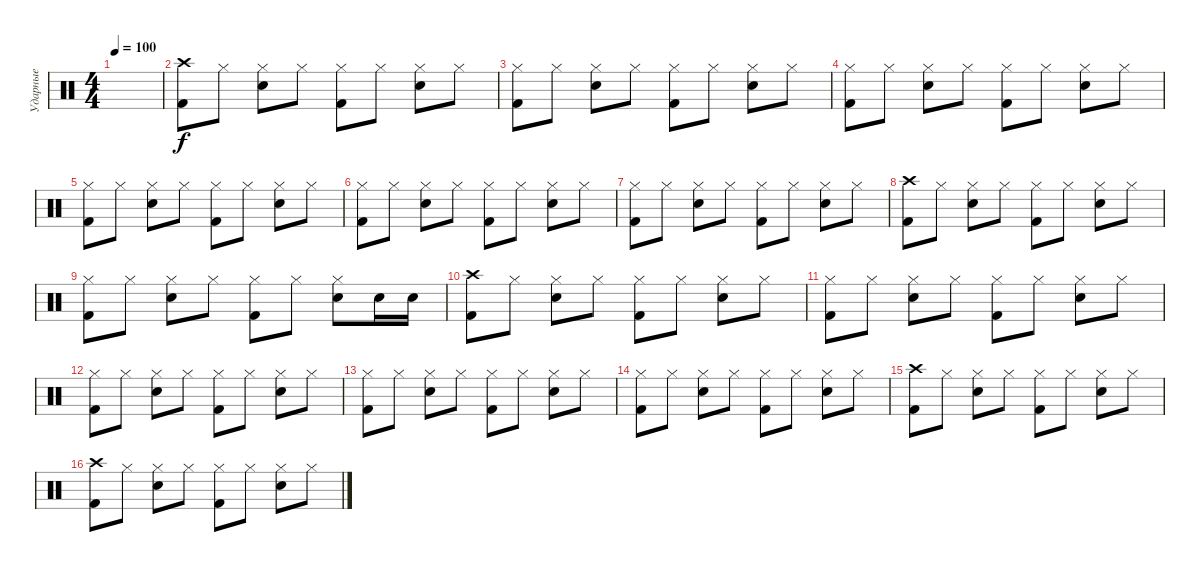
\track ("Ударные" "Ударные") {instrument percussion}
\staff {score}
\articulation defaults
\ts (4 4)
\tempo 100
\clef neutral
\ks c
|
("Kick (hit) 2" "Crash high (hit)").8 "Hi-Hat (closed)".8 ("Electric Snare (hit)" "Hi-Hat (closed)").8 "Hi-Hat (closed)".8 ("Hi-Hat (closed)" "Kick (hit) 2").8 "Hi-Hat (closed)".8 ("Electric Snare (hit)" "Hi-Hat (closed)").8 "Hi-Hat (closed)".8 |
("Kick (hit) 2" "Hi-Hat (closed)").8 "Hi-Hat (closed)".8 ("Electric Snare (hit)" "Hi-Hat (closed)").8 "Hi-Hat (closed)".8 ("Hi-Hat (closed)" "Kick (hit) 2").8 "Hi-Hat (closed)".8 ("Electric Snare (hit)" "Hi-Hat (closed)").8 "Hi-Hat (closed)".8 |
("Kick (hit) 2" "Hi-Hat (closed)").8 "Hi-Hat (closed)".8 ("Electric Snare (hit)" "Hi-Hat (closed)").8 "Hi-Hat (closed)".8 ("Hi-Hat (closed)" "Kick (hit) 2").8 "Hi-Hat (closed)".8 ("Electric Snare (hit)" "Hi-Hat (closed)").8 "Hi-Hat (closed)".8 |
("Kick (hit) 2" "Hi-Hat (closed)").8 "Hi-Hat (closed)".8 ("Electric Snare (hit)" "Hi-Hat (closed)").8 "Hi-Hat (closed)".8 ("Hi-Hat (closed)" "Kick (hit) 2").8 "Hi-Hat (closed)".8 ("Electric Snare (hit)" "Hi-Hat (closed)").8 "Hi-Hat (closed)".8 |
("Kick (hit) 2" "Hi-Hat (closed)").8 "Hi-Hat (closed)".8 ("Electric Snare (hit)" "Hi-Hat (closed)").8 "Hi-Hat (closed)".8 ("Hi-Hat (closed)" "Kick (hit) 2").8 "Hi-Hat (closed)".8 ("Electric Snare (hit)" "Hi-Hat (closed)").8 "Hi-Hat (closed)".8 |
("Kick (hit) 2" "Hi-Hat (closed)").8 "Hi-Hat (closed)".8 ("Electric Snare (hit)" "Hi-Hat (closed)").8 "Hi-Hat (closed)".8 ("Hi-Hat (closed)" "Kick (hit) 2").8 "Hi-Hat (closed)".8 ("Electric Snare (hit)" "Hi-Hat (closed)").8 "Hi-Hat (closed)".8 |
("Kick (hit) 2" "Crash high (hit)").8 "Hi-Hat (closed)".8 ("Electric Snare (hit)" "Hi-Hat (closed)").8 "Hi-Hat (closed)".8 ("Hi-Hat (closed)" "Kick (hit) 2").8 "Hi-Hat (closed)".8 ("Electric Snare (hit)" "Hi-Hat (closed)").8 "Hi-Hat (closed)".8 |
("Kick (hit) 2" "Hi-Hat (closed)").8 "Hi-Hat (closed)".8 ("Electric Snare (hit)" "Hi-Hat (closed)").8 "Hi-Hat (closed)".8 ("Hi-Hat (closed)" "Kick (hit) 2").8 "Hi-Hat (closed)".8 ("Electric Snare (hit)" "Hi-Hat (closed)").8 "Electric Snare (hit)".16 "Electric Snare (hit)".16 |
("Kick (hit) 2" "Crash high (hit)").8 "Hi-Hat (closed)".8 ("Electric Snare (hit)" "Hi-Hat (closed)").8 "Hi-Hat (closed)".8 ("Hi-Hat (closed)" "Kick (hit) 2").8 "Hi-Hat (closed)".8 ("Electric Snare (hit)" "Hi-Hat (closed)").8 "Hi-Hat (closed)".8 |
("Kick (hit) 2" "Hi-Hat (closed)").8 "Hi-Hat (closed)".8 ("Electric Snare (hit)" "Hi-Hat (closed)").8 "Hi-Hat (closed)".8 ("Hi-Hat (closed)" "Kick (hit) 2").8 "Hi-Hat (closed)".8 ("Electric Snare (hit)" "Hi-Hat (closed)").8 "Hi-Hat (closed)".8 |
("Kick (hit) 2" "Hi-Hat (closed)").8 "Hi-Hat (closed)".8 ("Electric Snare (hit)" "Hi-Hat (closed)").8 "Hi-Hat (closed)".8 ("Hi-Hat (closed)" "Kick (hit) 2").8 "Hi-Hat (closed)".8 ("Electric Snare (hit)" "Hi-Hat (closed)").8 "Hi-Hat (closed)".8 |
("Kick (hit) 2" "Hi-Hat (closed)").8 "Hi-Hat (closed)".8 ("Electric Snare (hit)" "Hi-Hat (closed)").8 "Hi-Hat (closed)".8 ("Hi-Hat (closed)" "Kick (hit) 2").8 "Hi-Hat (closed)".8 ("Electric Snare (hit)" "Hi-Hat (closed)").8 "Hi-Hat (closed)".8 |
("Kick (hit) 2" "Hi-Hat (closed)").8 "Hi-Hat (closed)".8 ("Electric Snare (hit)" "Hi-Hat (closed)").8 "Hi-Hat (closed)".8 ("Hi-Hat (closed)" "Kick (hit) 2").8 "Hi-Hat (closed)".8 ("Electric Snare (hit)" "Hi-Hat (closed)").8 "Hi-Hat (closed)".8 |
("Kick (hit) 2" "Crash high (hit)").8 "Hi-Hat (closed)".8 ("Electric Snare (hit)" "Hi-Hat (closed)").8 "Hi-Hat (closed)".8 ("Hi-Hat (closed)" "Kick (hit) 2").8 "Hi-Hat (closed)".8 ("Electric Snare (hit)" "Hi-Hat (closed)").8 "Hi-Hat (closed)".8 |
("Kick (hit) 2" "Crash high (hit)").8 "Hi-Hat (closed)".8 ("Electric Snare (hit)" "Hi-Hat (closed)").8 "Hi-Hat (closed)".8 ("Hi-Hat (closed)" "Kick (hit) 2").8 "Hi-Hat (closed)".8 ("Electric Snare (hit)" "Hi-Hat (closed)").8 "Hi-Hat (closed)".8
